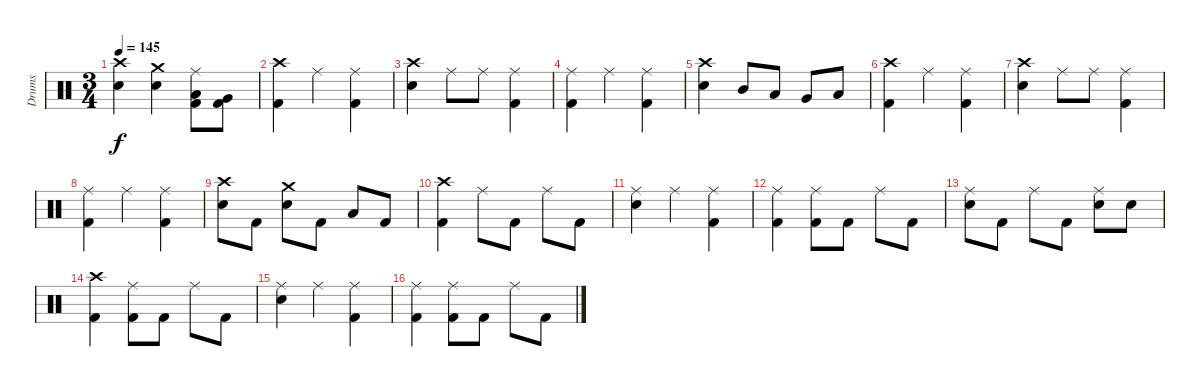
\track ("Drums" "Drums") {instrument percussion}
\staff {score}
\articulation defaults
\ts (3 4)
\tempo 145
\clef neutral
\ks c
("Crash high (hit)" "Snare (hit) 2").4{dy f} ("Crash medium (hit)" "Snare (hit) 2").4 ("Ride (middle)" "Low Tom (hit)" "Kick (hit) 2").8 ("Very Low Tom (hit)" "Kick (hit) 2").8 |
("Crash high (hit)" "Kick (hit) 2").4 "Ride (middle)".4 ("Ride (middle)" "Kick (hit) 2").4 |
("Crash high (hit)" "Snare (hit) 2").4 "Ride (middle)".8 "Ride (middle)".8 ("Ride (middle)" "Kick (hit) 2").4 |
("Ride (middle)" "Kick (hit) 2").4 "Ride (middle)".4 ("Ride (middle)" "Kick (hit) 2").4 |
("Crash high (hit)" "Snare (hit) 2").4 "Mid Tom (hit)".8 "Low Tom (hit)".8 "Very Low Tom (hit)".8 "Low Floor Tom (hit)".8 |
("Crash high (hit)" "Kick (hit) 2").4 "Ride (middle)".4 ("Ride (middle)" "Kick (hit) 2").4 |
("Crash high (hit)" "Snare (hit) 2").4 "Ride (middle)".8 "Ride (middle)".8 ("Ride (middle)" "Kick (hit) 2").4 |
("Ride (middle)" "Kick (hit) 2").4 "Ride (middle)".4 ("Ride (middle)" "Kick (hit) 2").4 |
("Crash high (hit)" "Snare (hit) 2").8 "Kick (hit) 2".8 ("Crash medium (hit)" "Snare (hit) 2").8 "Kick (hit) 2".8 "Low Tom (hit)".8 "Kick (hit) 2".8 |
("Crash high (hit)" "Kick (hit) 2").4 "Ride (middle)".8 "Kick (hit) 2".8 "Ride (middle)".8 "Kick (hit) 2".8 |
("Ride (middle)" "Snare (hit) 2").4 "Ride (middle)".4 ("Ride (middle)" "Kick (hit) 2").4 |
("Ride (middle)" "Kick (hit) 2").4 ("Ride (middle)" "Kick (hit) 2").8 "Kick (hit) 2".8 "Ride (middle)".8 "Kick (hit) 2".8 |
("Ride (middle)" "Snare (hit) 2").8 "Kick (hit) 2".8 "Ride (middle)".8 "Kick (hit) 2".8 ("Ride (middle)" "Snare (hit) 2").8 "Snare (hit) 2".8 |
("Crash high (hit)" "Kick (hit) 2").4 ("Ride (middle)" "Kick (hit) 2").8 "Kick (hit) 2".8 "Ride (middle)".8 "Kick (hit) 2".8 |
("Ride (middle)" "Snare (hit) 2").4 "Ride (middle)".4 ("Ride (middle)" "Kick (hit) 2").4 |
("Ride (middle)" "Kick (hit) 2").4 ("Ride (middle)" "Kick (hit) 2").8 "Kick (hit) 2".8 "Ride (middle)".8 "Kick (hit) 2".8
